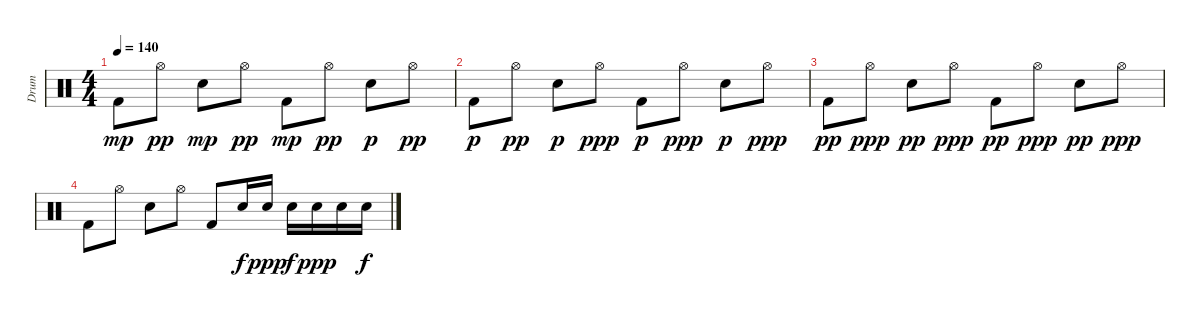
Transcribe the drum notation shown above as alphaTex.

\track ("Drum" "Drum") {instrument percussion}
\staff {score}
\articulation defaults
\ts (4 4)
\tempo 140
\clef neutral
\ks c "Kick (hit) 2".8{dy mp} "Hi-Hat (open)".8{dy pp} "Electric Snare (hit)".8{dy mp} "Hi-Hat (open)".8{dy pp} "Kick (hit) 2".8{dy mp} "Hi-Hat (open)".8{dy pp} "Electric Snare (hit)".8{dy p} "Hi-Hat (open)".8{dy pp}
|
"Kick (hit) 2".8{dy p} "Hi-Hat (open)".8{dy pp} "Electric Snare (hit)".8{dy p} "Hi-Hat (open)".8{dy ppp} "Kick (hit) 2".8{dy p} "Hi-Hat (open)".8{dy ppp} "Electric Snare (hit)".8{dy p} "Hi-Hat (open)".8{dy ppp} |
"Kick (hit) 2".8{dy pp} "Hi-Hat (open)".8{dy ppp} "Electric Snare (hit)".8{dy pp} "Hi-Hat (open)".8{dy ppp} "Kick (hit) 2".8{dy pp} "Hi-Hat (open)".8{dy ppp} "Electric Snare (hit)".8{dy pp} "Hi-Hat (open)".8{dy ppp} |
"Kick (hit) 2".8 "Hi-Hat (open)".8 "Electric Snare (hit)".8 "Hi-Hat (open)".8 "Kick (hit) 2".8 "Electric Snare (hit)".16{dy f} "Electric Snare (hit)".16{dy ppp} "Electric Snare (hit)".16{dy f} "Electric Snare (hit)".16{dy ppp} "Electric Snare (hit)".16 "Electric Snare (hit)".16{dy f}
